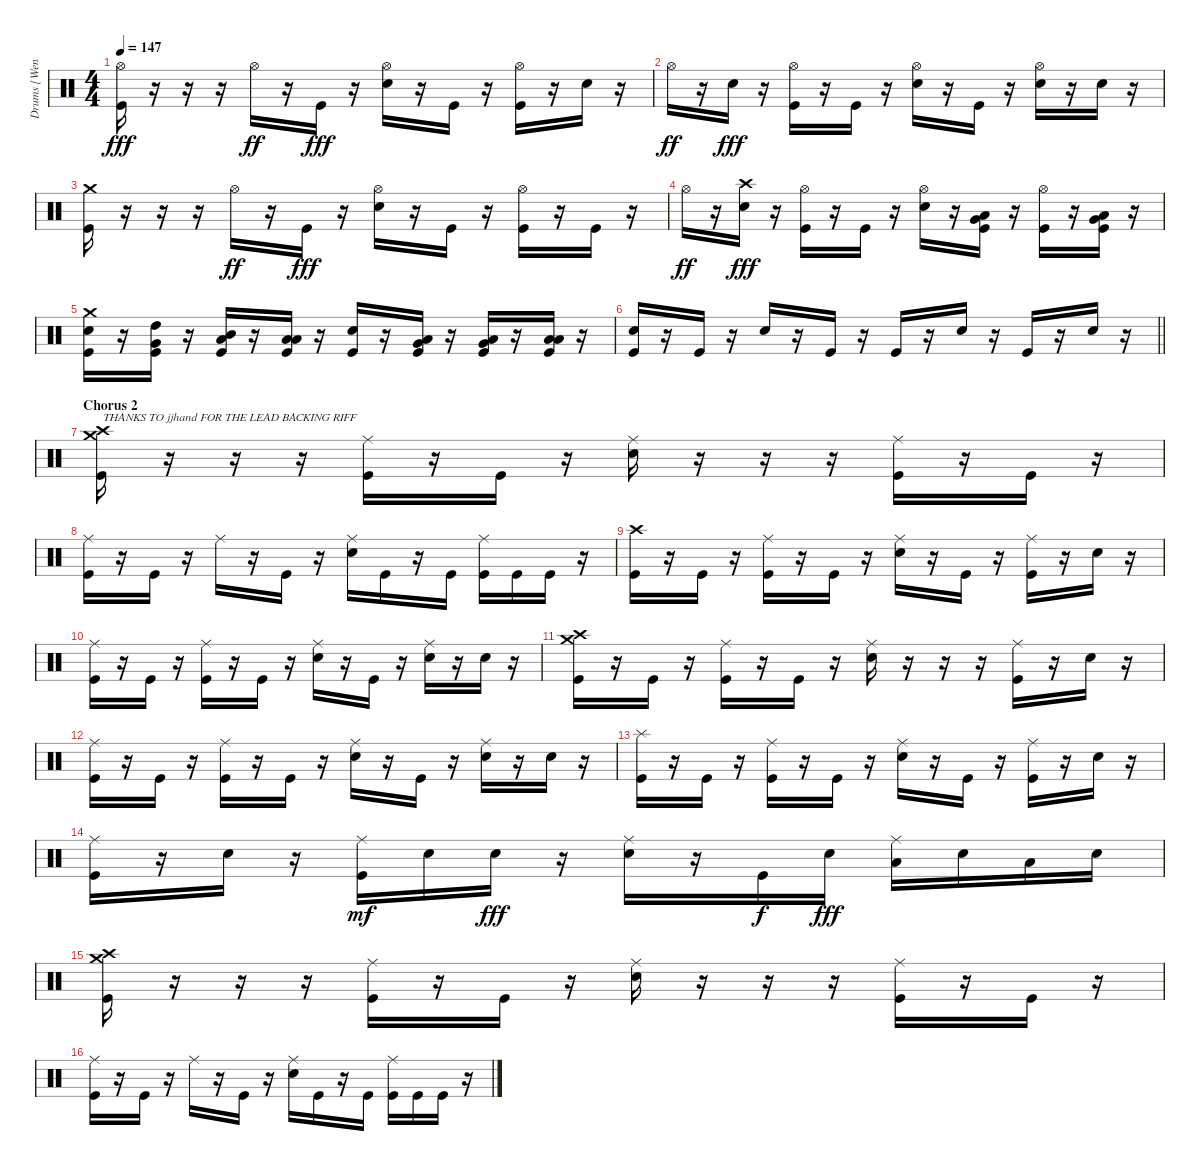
\track ("Drums [Wengren]" "Drums [Wen") {instrument percussion}
\staff {score}
\articulation defaults
\ts (4 4)
\tempo 147
\clef neutral
\ks c
("Hi-Hat (open)" "Kick (hit)").16{dy fff} r.16 r.16 r.16 "Hi-Hat (open)".16{dy ff} r.16 "Kick (hit)".16{dy fff} r.16 ("Hi-Hat (open)" "Snare (hit) 2").16 r.16 "Kick (hit)".16 r.16 ("Hi-Hat (open)" "Kick (hit)").16 r.16 "Snare (hit) 2".16 r.16 |
"Hi-Hat (open)".16{dy ff} r.16 "Snare (hit) 2".16{dy fff} r.16 ("Hi-Hat (open)" "Kick (hit)").16 r.16 "Kick (hit)".16 r.16 ("Hi-Hat (open)" "Snare (hit) 2").16 r.16 "Kick (hit)".16 r.16 ("Hi-Hat (open)" "Snare (hit) 2").16 r.16 "Snare (hit) 2".16 r.16 |
("Crash medium (hit)" "Kick (hit)").16 r.16 r.16 r.16 "Hi-Hat (open)".16{dy ff} r.16 "Kick (hit)".16{dy fff} r.16 ("Hi-Hat (open)" "Snare (hit) 2").16 r.16 "Kick (hit)".16 r.16 ("Hi-Hat (open)" "Kick (hit)").16 r.16 "Kick (hit)".16 r.16 |
"Hi-Hat (open)".16{dy ff} r.16 ("Crash high (hit)" "Snare (hit) 2").16{dy fff} r.16 ("Hi-Hat (open)" "Kick (hit)").16 r.16 "Kick (hit)".16 r.16 ("Hi-Hat (open)" "Snare (hit) 2").16 r.16 ("Low Tom (hit)" "Very Low Tom (hit)" "Kick (hit)").16 r.16 ("Hi-Hat (open)" "Kick (hit)").16 r.16 ("Very Low Tom (hit)" "Low Floor Tom (hit)" "Kick (hit)").16 r.16 |
("Crash medium (hit)" "Snare (hit) 2" "Kick (hit)").16 r.16 ("High Tom (hit)" "Very Low Tom (hit)" "Kick (hit)").16 r.16 ("Mid Tom (hit)" "Low Tom (hit)" "Kick (hit)").16 r.16 ("Low Tom (hit)" "Low Floor Tom (hit)" "Kick (hit)").16 r.16 ("Snare (hit) 2" "Kick (hit)").16 r.16 ("Low Tom (hit)" "Very Low Tom (hit)" "Kick (hit)").16 r.16 ("Very Low Tom (hit)" "Low Floor Tom (hit)" "Kick (hit)").16 r.16 ("Low Tom (hit)" "Low Floor Tom (hit)" "Kick (hit)").16 r.16 |
\barLineRight lightlight
("Snare (hit) 2" "Kick (hit)").16 r.16 "Kick (hit)".16 r.16 "Snare (hit) 2".16 r.16 "Kick (hit)".16 r.16 "Kick (hit)".16 r.16 "Snare (hit) 2".16 r.16 "Kick (hit)".16 r.16 "Snare (hit) 2".16 r.16 |
\section ("" "Chorus 2")
("Crash high (hit)" "Crash medium (hit)" "Kick (hit)").16{txt "THANKS TO jjhand FOR THE LEAD BACKING RIFF"} r.16 r.16 r.16 ("Ride (middle)" "Kick (hit)").16 r.16 "Kick (hit)".16 r.16 ("Ride (middle)" "Snare (hit) 2").16 r.16 r.16 r.16 ("Ride (middle)" "Kick (hit)").16 r.16 "Kick (hit)".16 r.16 |
("Ride (middle)" "Kick (hit)").16 r.16 "Kick (hit)".16 r.16 "Ride (middle)".16 r.16 "Kick (hit)".16 r.16 ("Ride (middle)" "Snare (hit) 2").16 "Kick (hit)".16 r.16 "Kick (hit)".16 ("Ride (middle)" "Kick (hit)").16 "Kick (hit)".16 "Kick (hit)".16 r.16 |
("Crash high (hit)" "Kick (hit)").16 r.16 "Kick (hit)".16 r.16 ("Ride (middle)" "Kick (hit)").16 r.16 "Kick (hit)".16 r.16 ("Ride (middle)" "Snare (hit) 2").16 r.16 "Kick (hit)".16 r.16 ("Ride (middle)" "Kick (hit)").16 r.16 "Snare (hit) 2".16 r.16 |
("Ride (middle)" "Kick (hit)").16 r.16 "Kick (hit)".16 r.16 ("Ride (middle)" "Kick (hit)").16 r.16 "Kick (hit)".16 r.16 ("Ride (middle)" "Snare (hit) 2").16 r.16 "Kick (hit)".16 r.16 ("Ride (middle)" "Snare (hit) 2").16 r.16 "Snare (hit) 2".16 r.16 |
("Crash high (hit)" "Crash medium (hit)" "Kick (hit)").16 r.16 "Kick (hit)".16 r.16 ("Ride (middle)" "Kick (hit)").16 r.16 "Kick (hit)".16 r.16 ("Ride (middle)" "Snare (hit) 2").16 r.16 r.16 r.16 ("Ride (middle)" "Kick (hit)").16 r.16 "Snare (hit) 2".16 r.16 |
("Ride (middle)" "Kick (hit)").16 r.16 "Kick (hit)".16 r.16 ("Ride (middle)" "Kick (hit)").16 r.16 "Kick (hit)".16 r.16 ("Ride (middle)" "Snare (hit) 2").16 r.16 "Kick (hit)".16 r.16 ("Ride (middle)" "Snare (hit) 2").16 r.16 "Snare (hit) 2".16 r.16 |
("Splash (hit)" "Kick (hit)").16 r.16 "Kick (hit)".16 r.16 ("Ride (middle)" "Kick (hit)").16 r.16 "Kick (hit)".16 r.16 ("Ride (middle)" "Snare (hit) 2").16 r.16 "Kick (hit)".16 r.16 ("Ride (middle)" "Kick (hit)").16 r.16 "Snare (hit) 2".16 r.16 |
("Ride (middle)" "Kick (hit)").16 r.16 "Snare (hit) 2".16 r.16 ("Ride (middle)" "Kick (hit)").16{dy mf} "Snare (hit) 2".16 "Snare (hit) 2".16{dy fff} r.16 ("Ride (middle)" "Snare (hit) 2").16 r.16 "Kick (hit)".16{dy f} "Snare (hit) 2".16{dy fff} ("Ride (middle)" "Low Tom (hit)").16 "Snare (hit) 2".16 "Low Tom (hit)".16 "Snare (hit) 2".16 |
("Crash high (hit)" "Crash medium (hit)" "Kick (hit)").16 r.16 r.16 r.16 ("Ride (middle)" "Kick (hit)").16 r.16 "Kick (hit)".16 r.16 ("Ride (middle)" "Snare (hit) 2").16 r.16 r.16 r.16 ("Ride (middle)" "Kick (hit)").16 r.16 "Kick (hit)".16 r.16 |
("Ride (middle)" "Kick (hit)").16 r.16 "Kick (hit)".16 r.16 "Ride (middle)".16 r.16 "Kick (hit)".16 r.16 ("Ride (middle)" "Snare (hit) 2").16 "Kick (hit)".16 r.16 "Kick (hit)".16 ("Ride (middle)" "Kick (hit)").16 "Kick (hit)".16 "Kick (hit)".16 r.16
